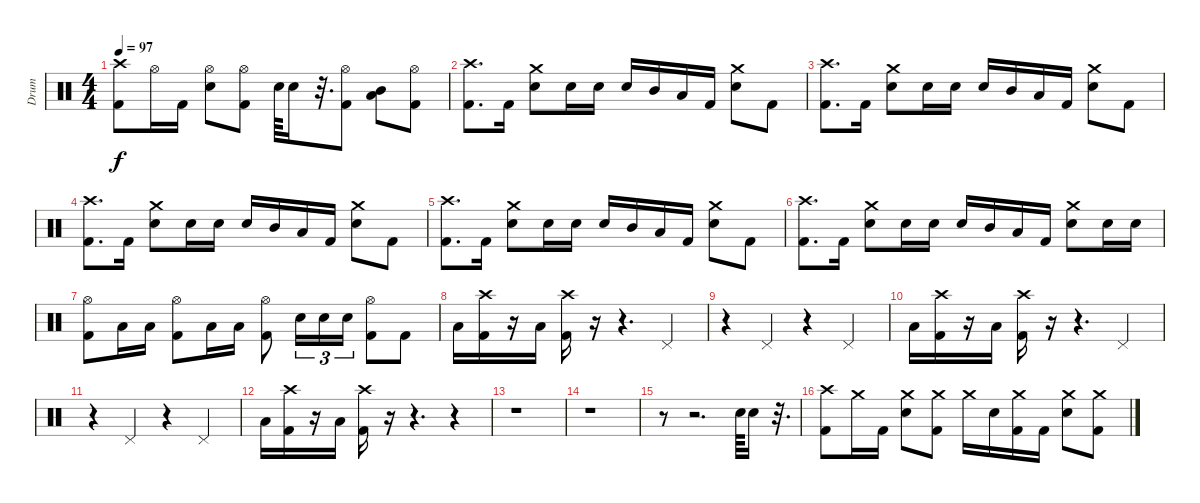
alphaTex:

\track ("Drum" "Drum") {instrument percussion}
\staff {score}
\articulation defaults
\ts (4 4)
\tempo 97
\clef neutral
\ks c
("Crash high (hit)" "Kick (hit) 2").8{dy f} "Hi-Hat (open)".16 "Kick (hit) 2".16 ("Hi-Hat (open)" "Snare (hit) 2").8 ("Hi-Hat (open)" "Kick (hit) 2").8 "Snare (hit) 2".64 "Snare (hit) 2".16 r.32{d} ("Hi-Hat (open)" "Kick (hit) 2").8 ("Low Tom (hit)" "Mid Tom (hit)").8 ("Hi-Hat (open)" "Kick (hit) 2").8 |
("Crash high (hit)" "Kick (hit) 2").8{d} "Kick (hit) 2".16 ("Crash medium (hit)" "Snare (hit) 2").8 "Snare (hit) 2".16 "Snare (hit) 2".16 "Snare (hit) 2".16 "Mid Tom (hit)".16 "Low Tom (hit)".16 "Kick (hit) 2".16 ("Crash medium (hit)" "Snare (hit) 2").8 "Kick (hit) 2".8 |
("Crash high (hit)" "Kick (hit) 2").8{d} "Kick (hit) 2".16 ("Crash medium (hit)" "Snare (hit) 2").8 "Snare (hit) 2".16 "Snare (hit) 2".16 "Snare (hit) 2".16 "Mid Tom (hit)".16 "Low Tom (hit)".16 "Kick (hit) 2".16 ("Crash medium (hit)" "Snare (hit) 2").8 "Kick (hit) 2".8 |
("Crash high (hit)" "Kick (hit) 2").8{d} "Kick (hit) 2".16 ("Crash medium (hit)" "Snare (hit) 2").8 "Snare (hit) 2".16 "Snare (hit) 2".16 "Snare (hit) 2".16 "Mid Tom (hit)".16 "Low Tom (hit)".16 "Kick (hit) 2".16 ("Crash medium (hit)" "Snare (hit) 2").8 "Kick (hit) 2".8 |
("Crash high (hit)" "Kick (hit) 2").8{d} "Kick (hit) 2".16 ("Crash medium (hit)" "Snare (hit) 2").8 "Snare (hit) 2".16 "Snare (hit) 2".16 "Snare (hit) 2".16 "Mid Tom (hit)".16 "Low Tom (hit)".16 "Kick (hit) 2".16 ("Crash medium (hit)" "Snare (hit) 2").8 "Kick (hit) 2".8 |
("Crash high (hit)" "Kick (hit) 2").8{d} "Kick (hit) 2".16 ("Crash medium (hit)" "Snare (hit) 2").8 "Snare (hit) 2".16 "Snare (hit) 2".16 "Snare (hit) 2".16 "Mid Tom (hit)".16 "Low Tom (hit)".16 "Kick (hit) 2".16 ("Crash medium (hit)" "Snare (hit) 2").8 "Snare (hit) 2".16 "Snare (hit) 2".16 |
("Hi-Hat (open)" "Kick (hit) 2").8 "Low Tom (hit)".16 "Low Tom (hit)".16 ("Hi-Hat (open)" "Kick (hit) 2").8 "Low Tom (hit)".16 "Low Tom (hit)".16 ("Hi-Hat (open)" "Kick (hit) 2").8 "Snare (hit) 2".16{tu (3 2)} "Snare (hit) 2".16{tu (3 2)} "Snare (hit) 2".16{tu (3 2)} ("Hi-Hat (open)" "Kick (hit) 2").8 "Kick (hit) 2".8 |
"Low Tom (hit)".16 ("Crash high (hit)" "Kick (hit) 2").16 r.16 "Low Tom (hit)".16 ("Crash high (hit)" "Kick (hit) 2").16 r.16 r.4{d} "Pedal Hi-Hat (hit)".4 |
r.4 "Pedal Hi-Hat (hit)".4 r.4 "Pedal Hi-Hat (hit)".4 |
"Low Tom (hit)".16 ("Crash high (hit)" "Kick (hit) 2").16 r.16 "Low Tom (hit)".16 ("Crash high (hit)" "Kick (hit) 2").16 r.16 r.4{d} "Pedal Hi-Hat (hit)".4 |
r.4 "Pedal Hi-Hat (hit)".4 r.4 "Pedal Hi-Hat (hit)".4 |
"Low Tom (hit)".16 ("Crash high (hit)" "Kick (hit) 2").16 r.16 "Low Tom (hit)".16 ("Crash high (hit)" "Kick (hit) 2").16 r.16 r.4{d} r.4 |
r.1 |
r.1 |
r.8 r.2{d} "Snare (hit) 2".64 "Snare (hit) 2".16 r.32{d} |
("Crash high (hit)" "Kick (hit) 2").8 "Crash medium (hit)".16 "Kick (hit) 2".16 ("Crash medium (hit)" "Snare (hit) 2").8 ("Crash medium (hit)" "Kick (hit) 2").8 "Crash medium (hit)".16 "Snare (hit) 2".16 ("Crash medium (hit)" "Kick (hit) 2").16 "Kick (hit) 2".16 ("Crash medium (hit)" "Snare (hit) 2").8 ("Crash medium (hit)" "Kick (hit) 2").8
